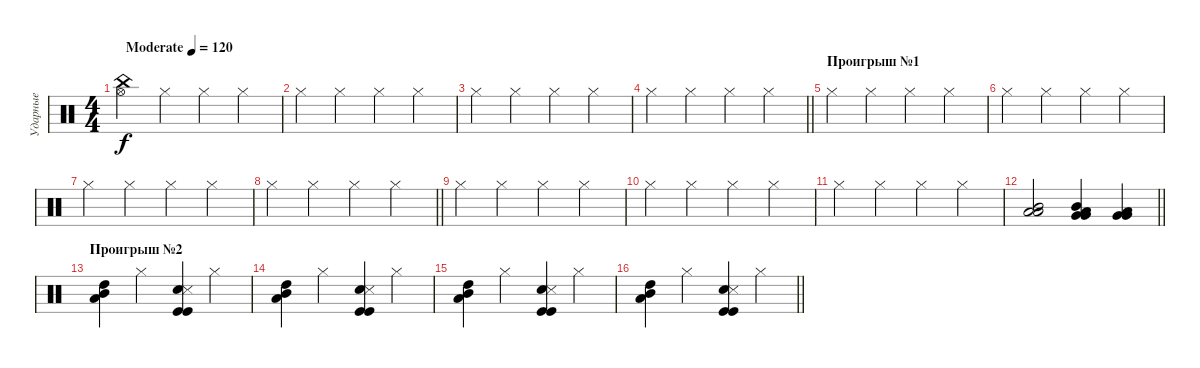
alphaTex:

\track ("Ударные" "Ударные") {instrument percussion}
\staff {score}
\articulation defaults
\ts (4 4)
\tempo (120 "Moderate")
\clef neutral
\ks c
("China (hit)" "Hi-Hat (open)").4{dy f} "Hi-Hat (closed)".4 "Hi-Hat (closed)".4 "Hi-Hat (closed)".4 |
"Hi-Hat (closed)".4 "Hi-Hat (closed)".4 "Hi-Hat (closed)".4 "Hi-Hat (closed)".4 |
"Hi-Hat (closed)".4 "Hi-Hat (closed)".4 "Hi-Hat (closed)".4 "Hi-Hat (closed)".4 |
\barLineRight lightlight "Hi-Hat (closed)".4 "Hi-Hat (closed)".4 "Hi-Hat (closed)".4 "Hi-Hat (closed)".4
|
\section ("" "Проигрыш №1")
"Hi-Hat (closed)".4 "Hi-Hat (closed)".4 "Hi-Hat (closed)".4 "Hi-Hat (closed)".4 |
"Hi-Hat (closed)".4 "Hi-Hat (closed)".4 "Hi-Hat (closed)".4 "Hi-Hat (closed)".4 |
"Hi-Hat (closed)".4 "Hi-Hat (closed)".4 "Hi-Hat (closed)".4 "Hi-Hat (closed)".4 |
\barLineRight lightlight "Hi-Hat (closed)".4 "Hi-Hat (closed)".4 "Hi-Hat (closed)".4 "Hi-Hat (closed)".4
|
"Hi-Hat (closed)".4 "Hi-Hat (closed)".4 "Hi-Hat (closed)".4 "Hi-Hat (closed)".4 |
"Hi-Hat (closed)".4 "Hi-Hat (closed)".4 "Hi-Hat (closed)".4 "Hi-Hat (closed)".4 |
"Hi-Hat (closed)".4 "Hi-Hat (closed)".4 "Hi-Hat (closed)".4 "Hi-Hat (closed)".4 |
\barLineRight lightlight
("Low Tom (hit)" "Mid Tom (hit)" "Low Tom (hit)").2 ("Very Low Tom (hit)" "Very Low Tom (hit)" "Mid Tom (hit)" "Low Floor Tom (hit)").4 ("Low Floor Tom (hit)" "Very Low Tom (hit)" "Very Low Tom (hit)").4 |
\section ("" "Проигрыш №2")
("Mid Tom (hit)" "Low Tom (hit)" "High Tom (hit)").4 "Hi-Hat (closed)".4 ("Kick (hit)" "Kick (hit)" "Snare (hit) 2" "Snare (side stick) 3").4 "Hi-Hat (closed)".4 |
("Mid Tom (hit)" "Low Tom (hit)" "High Tom (hit)").4 "Hi-Hat (closed)".4 ("Kick (hit)" "Kick (hit)" "Snare (hit) 2" "Snare (side stick) 3").4 "Hi-Hat (closed)".4 |
("Mid Tom (hit)" "Low Tom (hit)" "High Tom (hit)").4 "Hi-Hat (closed)".4 ("Kick (hit)" "Kick (hit)" "Snare (hit) 2" "Snare (side stick) 3").4 "Hi-Hat (closed)".4 |
\barLineRight lightlight
("Mid Tom (hit)" "Low Tom (hit)" "High Tom (hit)").4 "Hi-Hat (closed)".4 ("Kick (hit)" "Kick (hit)" "Snare (hit) 2" "Snare (side stick) 3").4 "Hi-Hat (closed)".4
